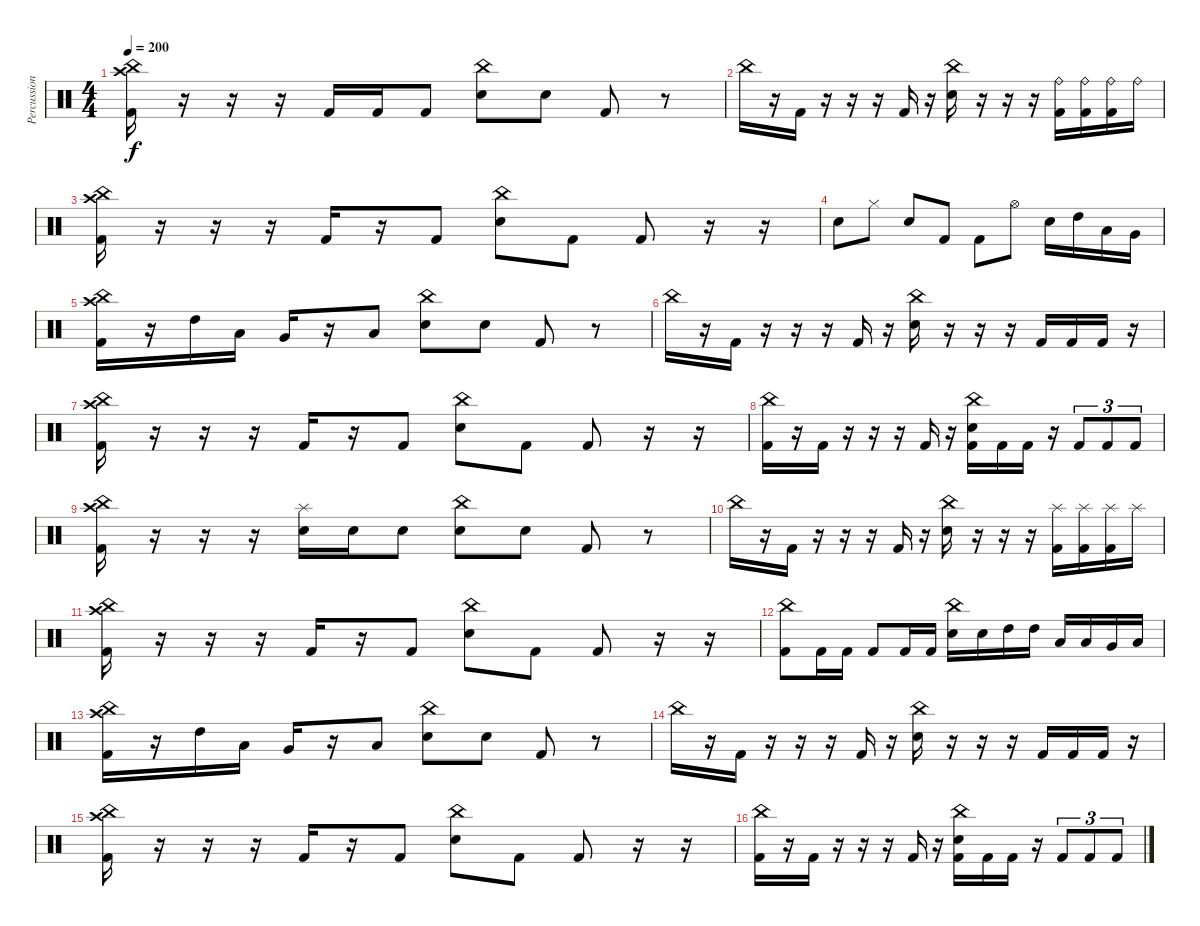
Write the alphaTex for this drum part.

\track ("Percussion" "Percussion") {instrument percussion}
\staff {score}
\articulation defaults
\ts (4 4)
\tempo 200
\clef neutral
\ks c
("China (hit)" "Kick (hit) 2" "Crash high (hit)").16{dy f} r.16 r.16 r.16 "Kick (hit) 2".16 "Kick (hit) 2".16 "Kick (hit) 2".8 ("Electric Snare (hit)" "China (hit)").8 "Electric Snare (hit)".8 "Kick (hit) 2".8 r.8 |
"China (hit)".16 r.16 "Kick (hit) 2".16 r.16 r.16 r.16 "Kick (hit) 2".16 r.16 ("China (hit)" "Electric Snare (hit)").16 r.16 r.16 r.16 ("Kick (hit) 2" "Ride (bell)").16 ("Kick (hit) 2" "Ride (bell)").16 ("Kick (hit) 2" "Ride (bell)").16 "Ride (bell)".16 |
("China (hit)" "Kick (hit) 2" "Crash high (hit)").16 r.16 r.16 r.16 "Kick (hit) 2".16 r.16 "Kick (hit) 2".8 ("Electric Snare (hit)" "China (hit)").8 "Kick (hit) 2".8 "Kick (hit) 2".8 r.16 r.16 |
"Electric Snare (hit)".8 "Hi-Hat (closed)".8 "Electric Snare (hit)".8 "Kick (hit) 2".8 "Kick (hit) 2".8 "Hi-Hat (open)".8 "Electric Snare (hit)".16 "High Tom (hit)".16 "Low Tom (hit)".16 "Very Low Tom (hit)".16 |
("China (hit)" "Kick (hit) 2" "Crash high (hit)").16 r.16 "High Tom (hit)".16 "Low Tom (hit)".16 "Very Low Tom (hit)".16 r.16 "Low Floor Tom (hit)".8 ("Electric Snare (hit)" "China (hit)").8 "Electric Snare (hit)".8 "Kick (hit) 2".8 r.8 |
"China (hit)".16 r.16 "Kick (hit) 2".16 r.16 r.16 r.16 "Kick (hit) 2".16 r.16 ("China (hit)" "Electric Snare (hit)").16 r.16 r.16 r.16 "Kick (hit) 2".16 "Kick (hit) 2".16 "Kick (hit) 2".16 r.16 |
("China (hit)" "Kick (hit) 2" "Crash high (hit)").16 r.16 r.16 r.16 "Kick (hit) 2".16 r.16 "Kick (hit) 2".8 ("Electric Snare (hit)" "China (hit)").8 "Kick (hit) 2".8 "Kick (hit) 2".8 r.16 r.16 |
("China (hit)" "Kick (hit) 2").16 r.16 "Kick (hit) 2".16 r.16 r.16 r.16 "Kick (hit) 2".16 r.16 ("China (hit)" "Electric Snare (hit)" "Kick (hit) 2").16 "Kick (hit) 2".16 "Kick (hit) 2".16 r.16 "Kick (hit) 2".8{tu (3 2)} "Kick (hit) 2".8{tu (3 2)} "Kick (hit) 2".8{tu (3 2)} |
("China (hit)" "Kick (hit) 2" "Crash high (hit)").16 r.16 r.16 r.16 ("Splash (hit)" "Electric Snare (hit)").16 "Electric Snare (hit)".16 "Electric Snare (hit)".8 ("Electric Snare (hit)" "China (hit)").8 "Electric Snare (hit)".8 "Kick (hit) 2".8 r.8 |
"China (hit)".16 r.16 "Kick (hit) 2".16 r.16 r.16 r.16 "Kick (hit) 2".16 r.16 ("China (hit)" "Electric Snare (hit)").16 r.16 r.16 r.16 ("Splash (hit)" "Kick (hit) 2").16 ("Splash (hit)" "Kick (hit) 2").16 ("Splash (hit)" "Kick (hit) 2").16 "Splash (hit)".16 |
("China (hit)" "Kick (hit) 2" "Crash high (hit)").16 r.16 r.16 r.16 "Kick (hit) 2".16 r.16 "Kick (hit) 2".8 ("Electric Snare (hit)" "China (hit)").8 "Kick (hit) 2".8 "Kick (hit) 2".8 r.16 r.16 |
("China (hit)" "Kick (hit) 2").8 "Kick (hit) 2".16 "Kick (hit) 2".16 "Kick (hit) 2".8 "Kick (hit) 2".16 "Kick (hit) 2".16 ("China (hit)" "Electric Snare (hit)").16 "Electric Snare (hit)".16 "High Tom (hit)".16 "High Tom (hit)".16 "Low Tom (hit)".16 "Low Tom (hit)".16 "Very Low Tom (hit)".16 "Low Floor Tom (hit)".16 |
("China (hit)" "Kick (hit) 2" "Crash high (hit)").16 r.16 "High Tom (hit)".16 "Low Tom (hit)".16 "Very Low Tom (hit)".16 r.16 "Low Floor Tom (hit)".8 ("Electric Snare (hit)" "China (hit)").8 "Electric Snare (hit)".8 "Kick (hit) 2".8 r.8 |
"China (hit)".16 r.16 "Kick (hit) 2".16 r.16 r.16 r.16 "Kick (hit) 2".16 r.16 ("China (hit)" "Electric Snare (hit)").16 r.16 r.16 r.16 "Kick (hit) 2".16 "Kick (hit) 2".16 "Kick (hit) 2".16 r.16 |
("China (hit)" "Kick (hit) 2" "Crash high (hit)").16 r.16 r.16 r.16 "Kick (hit) 2".16 r.16 "Kick (hit) 2".8 ("Electric Snare (hit)" "China (hit)").8 "Kick (hit) 2".8 "Kick (hit) 2".8 r.16 r.16 |
("China (hit)" "Kick (hit) 2").16 r.16 "Kick (hit) 2".16 r.16 r.16 r.16 "Kick (hit) 2".16 r.16 ("China (hit)" "Electric Snare (hit)" "Kick (hit) 2").16 "Kick (hit) 2".16 "Kick (hit) 2".16 r.16 "Kick (hit) 2".8{tu (3 2)} "Kick (hit) 2".8{tu (3 2)} "Kick (hit) 2".8{tu (3 2)}
